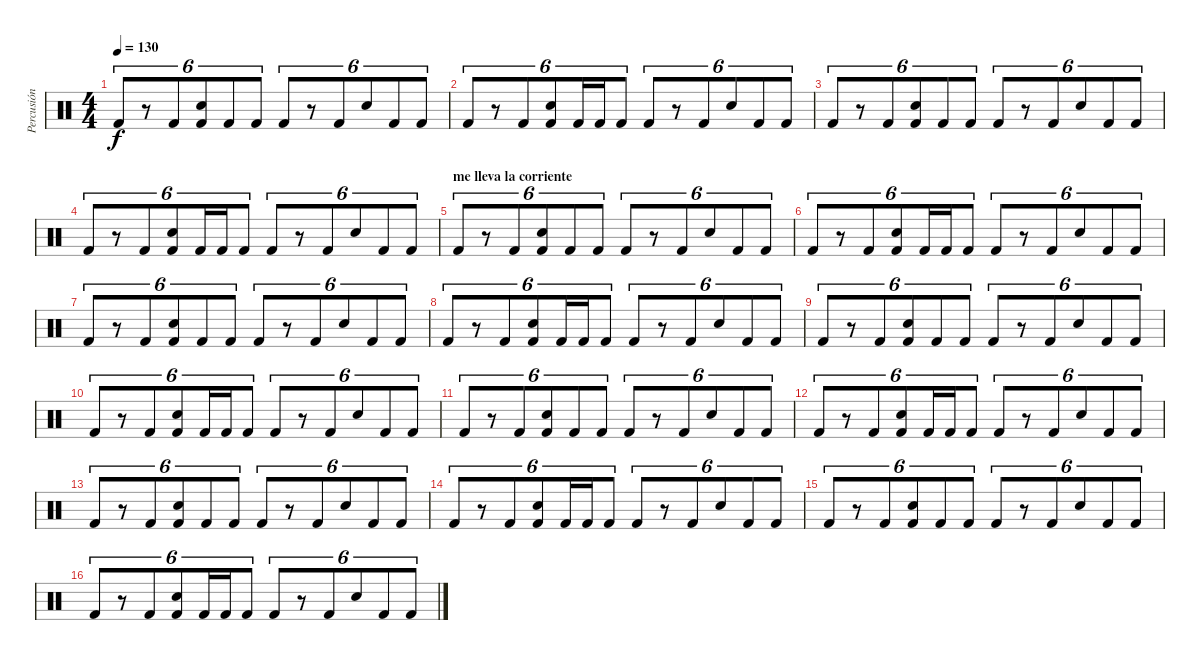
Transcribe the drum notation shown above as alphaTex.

\track ("Percusión" "Percusión") {instrument percussion}
\staff {score}
\articulation defaults
\ts (4 4)
\tempo 130
\clef neutral
\ks c "Kick (hit) 2".8{tu (6 4) dy f}
r.8{tu (6 4)} "Kick (hit) 2".8{tu (6 4)} ("Electric Snare (hit)" "Kick (hit) 2").8{tu (6 4)} "Kick (hit) 2".8{tu (6 4)} "Kick (hit) 2".8{tu (6 4)} "Kick (hit) 2".8{tu (6 4)} r.8{tu (6 4)} "Kick (hit) 2".8{tu (6 4)} "Electric Snare (hit)".8{tu (6 4)} "Kick (hit) 2".8{tu (6 4)} "Kick (hit) 2".8{tu (6 4)} |
"Kick (hit) 2".8{tu (6 4)} r.8{tu (6 4)} "Kick (hit) 2".8{tu (6 4)} ("Electric Snare (hit)" "Kick (hit) 2").8{tu (6 4)} "Kick (hit) 2".16{tu (6 4)} "Kick (hit) 2".16{tu (6 4)} "Kick (hit) 2".8{tu (6 4)} "Kick (hit) 2".8{tu (6 4)} r.8{tu (6 4)} "Kick (hit) 2".8{tu (6 4)} "Electric Snare (hit)".8{tu (6 4)} "Kick (hit) 2".8{tu (6 4)} "Kick (hit) 2".8{tu (6 4)} |
"Kick (hit) 2".8{tu (6 4)} r.8{tu (6 4)} "Kick (hit) 2".8{tu (6 4)} ("Electric Snare (hit)" "Kick (hit) 2").8{tu (6 4)} "Kick (hit) 2".8{tu (6 4)} "Kick (hit) 2".8{tu (6 4)} "Kick (hit) 2".8{tu (6 4)} r.8{tu (6 4)} "Kick (hit) 2".8{tu (6 4)} "Electric Snare (hit)".8{tu (6 4)} "Kick (hit) 2".8{tu (6 4)} "Kick (hit) 2".8{tu (6 4)} |
"Kick (hit) 2".8{tu (6 4)} r.8{tu (6 4)} "Kick (hit) 2".8{tu (6 4)} ("Electric Snare (hit)" "Kick (hit) 2").8{tu (6 4)} "Kick (hit) 2".16{tu (6 4)} "Kick (hit) 2".16{tu (6 4)} "Kick (hit) 2".8{tu (6 4)} "Kick (hit) 2".8{tu (6 4)} r.8{tu (6 4)} "Kick (hit) 2".8{tu (6 4)} "Electric Snare (hit)".8{tu (6 4)} "Kick (hit) 2".8{tu (6 4)} "Kick (hit) 2".8{tu (6 4)} |
\section ("" "me lleva la corriente")
"Kick (hit) 2".8{tu (6 4)} r.8{tu (6 4)} "Kick (hit) 2".8{tu (6 4)} ("Electric Snare (hit)" "Kick (hit) 2").8{tu (6 4)} "Kick (hit) 2".8{tu (6 4)} "Kick (hit) 2".8{tu (6 4)} "Kick (hit) 2".8{tu (6 4)} r.8{tu (6 4)} "Kick (hit) 2".8{tu (6 4)} "Electric Snare (hit)".8{tu (6 4)} "Kick (hit) 2".8{tu (6 4)} "Kick (hit) 2".8{tu (6 4)} |
"Kick (hit) 2".8{tu (6 4)} r.8{tu (6 4)} "Kick (hit) 2".8{tu (6 4)} ("Electric Snare (hit)" "Kick (hit) 2").8{tu (6 4)} "Kick (hit) 2".16{tu (6 4)} "Kick (hit) 2".16{tu (6 4)} "Kick (hit) 2".8{tu (6 4)} "Kick (hit) 2".8{tu (6 4)} r.8{tu (6 4)} "Kick (hit) 2".8{tu (6 4)} "Electric Snare (hit)".8{tu (6 4)} "Kick (hit) 2".8{tu (6 4)} "Kick (hit) 2".8{tu (6 4)} |
"Kick (hit) 2".8{tu (6 4)} r.8{tu (6 4)} "Kick (hit) 2".8{tu (6 4)} ("Electric Snare (hit)" "Kick (hit) 2").8{tu (6 4)} "Kick (hit) 2".8{tu (6 4)} "Kick (hit) 2".8{tu (6 4)} "Kick (hit) 2".8{tu (6 4)} r.8{tu (6 4)} "Kick (hit) 2".8{tu (6 4)} "Electric Snare (hit)".8{tu (6 4)} "Kick (hit) 2".8{tu (6 4)} "Kick (hit) 2".8{tu (6 4)} |
"Kick (hit) 2".8{tu (6 4)} r.8{tu (6 4)} "Kick (hit) 2".8{tu (6 4)} ("Electric Snare (hit)" "Kick (hit) 2").8{tu (6 4)} "Kick (hit) 2".16{tu (6 4)} "Kick (hit) 2".16{tu (6 4)} "Kick (hit) 2".8{tu (6 4)} "Kick (hit) 2".8{tu (6 4)} r.8{tu (6 4)} "Kick (hit) 2".8{tu (6 4)} "Electric Snare (hit)".8{tu (6 4)} "Kick (hit) 2".8{tu (6 4)} "Kick (hit) 2".8{tu (6 4)} |
"Kick (hit) 2".8{tu (6 4)} r.8{tu (6 4)} "Kick (hit) 2".8{tu (6 4)} ("Electric Snare (hit)" "Kick (hit) 2").8{tu (6 4)} "Kick (hit) 2".8{tu (6 4)} "Kick (hit) 2".8{tu (6 4)} "Kick (hit) 2".8{tu (6 4)} r.8{tu (6 4)} "Kick (hit) 2".8{tu (6 4)} "Electric Snare (hit)".8{tu (6 4)} "Kick (hit) 2".8{tu (6 4)} "Kick (hit) 2".8{tu (6 4)} |
"Kick (hit) 2".8{tu (6 4)} r.8{tu (6 4)} "Kick (hit) 2".8{tu (6 4)} ("Electric Snare (hit)" "Kick (hit) 2").8{tu (6 4)} "Kick (hit) 2".16{tu (6 4)} "Kick (hit) 2".16{tu (6 4)} "Kick (hit) 2".8{tu (6 4)} "Kick (hit) 2".8{tu (6 4)} r.8{tu (6 4)} "Kick (hit) 2".8{tu (6 4)} "Electric Snare (hit)".8{tu (6 4)} "Kick (hit) 2".8{tu (6 4)} "Kick (hit) 2".8{tu (6 4)} |
"Kick (hit) 2".8{tu (6 4)} r.8{tu (6 4)} "Kick (hit) 2".8{tu (6 4)} ("Electric Snare (hit)" "Kick (hit) 2").8{tu (6 4)} "Kick (hit) 2".8{tu (6 4)} "Kick (hit) 2".8{tu (6 4)} "Kick (hit) 2".8{tu (6 4)} r.8{tu (6 4)} "Kick (hit) 2".8{tu (6 4)} "Electric Snare (hit)".8{tu (6 4)} "Kick (hit) 2".8{tu (6 4)} "Kick (hit) 2".8{tu (6 4)} |
"Kick (hit) 2".8{tu (6 4)} r.8{tu (6 4)} "Kick (hit) 2".8{tu (6 4)} ("Electric Snare (hit)" "Kick (hit) 2").8{tu (6 4)} "Kick (hit) 2".16{tu (6 4)} "Kick (hit) 2".16{tu (6 4)} "Kick (hit) 2".8{tu (6 4)} "Kick (hit) 2".8{tu (6 4)} r.8{tu (6 4)} "Kick (hit) 2".8{tu (6 4)} "Electric Snare (hit)".8{tu (6 4)} "Kick (hit) 2".8{tu (6 4)} "Kick (hit) 2".8{tu (6 4)} |
"Kick (hit) 2".8{tu (6 4)} r.8{tu (6 4)} "Kick (hit) 2".8{tu (6 4)} ("Electric Snare (hit)" "Kick (hit) 2").8{tu (6 4)} "Kick (hit) 2".8{tu (6 4)} "Kick (hit) 2".8{tu (6 4)} "Kick (hit) 2".8{tu (6 4)} r.8{tu (6 4)} "Kick (hit) 2".8{tu (6 4)} "Electric Snare (hit)".8{tu (6 4)} "Kick (hit) 2".8{tu (6 4)} "Kick (hit) 2".8{tu (6 4)} |
"Kick (hit) 2".8{tu (6 4)} r.8{tu (6 4)} "Kick (hit) 2".8{tu (6 4)} ("Electric Snare (hit)" "Kick (hit) 2").8{tu (6 4)} "Kick (hit) 2".16{tu (6 4)} "Kick (hit) 2".16{tu (6 4)} "Kick (hit) 2".8{tu (6 4)} "Kick (hit) 2".8{tu (6 4)} r.8{tu (6 4)} "Kick (hit) 2".8{tu (6 4)} "Electric Snare (hit)".8{tu (6 4)} "Kick (hit) 2".8{tu (6 4)} "Kick (hit) 2".8{tu (6 4)} |
"Kick (hit) 2".8{tu (6 4)} r.8{tu (6 4)} "Kick (hit) 2".8{tu (6 4)} ("Electric Snare (hit)" "Kick (hit) 2").8{tu (6 4)} "Kick (hit) 2".8{tu (6 4)} "Kick (hit) 2".8{tu (6 4)} "Kick (hit) 2".8{tu (6 4)} r.8{tu (6 4)} "Kick (hit) 2".8{tu (6 4)} "Electric Snare (hit)".8{tu (6 4)} "Kick (hit) 2".8{tu (6 4)} "Kick (hit) 2".8{tu (6 4)} |
"Kick (hit) 2".8{tu (6 4)} r.8{tu (6 4)} "Kick (hit) 2".8{tu (6 4)} ("Electric Snare (hit)" "Kick (hit) 2").8{tu (6 4)} "Kick (hit) 2".16{tu (6 4)} "Kick (hit) 2".16{tu (6 4)} "Kick (hit) 2".8{tu (6 4)} "Kick (hit) 2".8{tu (6 4)} r.8{tu (6 4)} "Kick (hit) 2".8{tu (6 4)} "Electric Snare (hit)".8{tu (6 4)} "Kick (hit) 2".8{tu (6 4)} "Kick (hit) 2".8{tu (6 4)}
